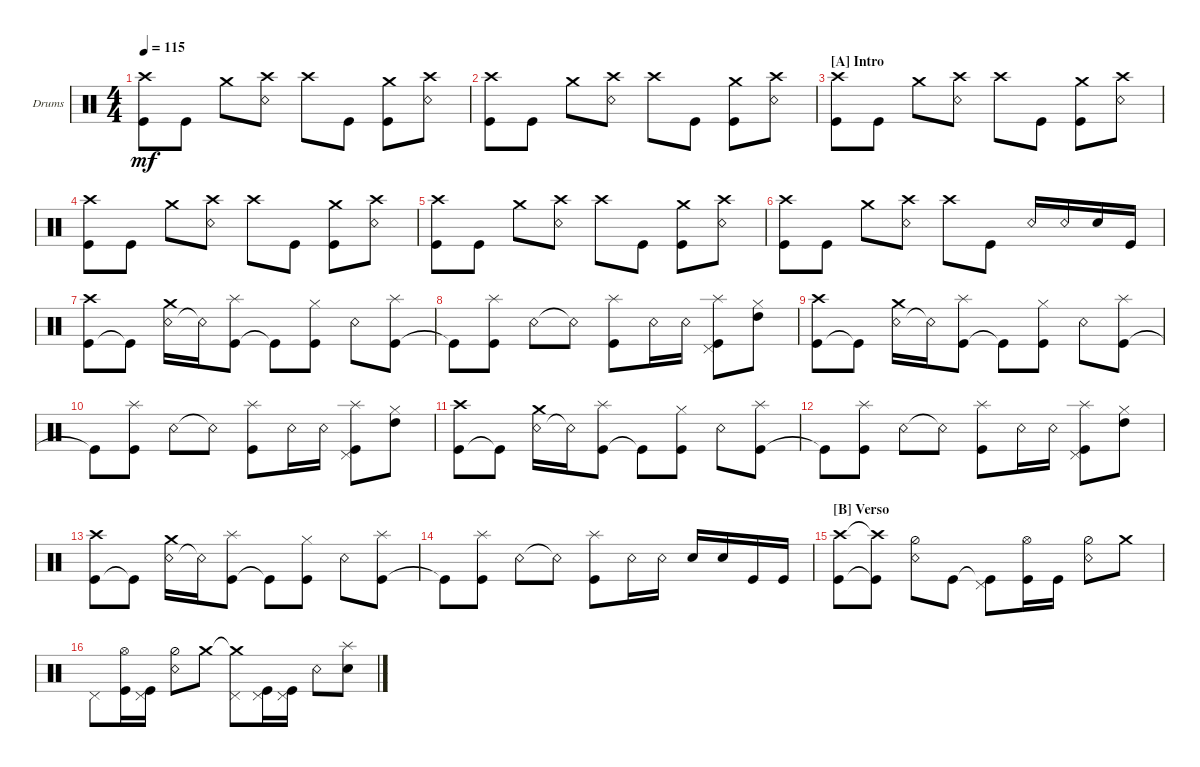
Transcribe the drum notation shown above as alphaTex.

\defaultSystemsLayout 4
\bracketExtendMode groupsimilarinstruments
\firstSystemTrackNameOrientation horizontal
\otherSystemsTrackNameOrientation horizontal
\track ("Drum" "Drums") {multiBarRest instrument percussion}
\staff {score}
\articulation defaults
\ts (4 4)
\tempo 115
\clef neutral
\ks c
("Kick (hit)" "Crash high (hit)").8{dy mf} "Kick (hit)".8 "Crash medium (hit)".8 ("Snare (rim shot)" "Crash high (hit)").8 "Crash high (hit)".8 "Kick (hit)".8 ("Crash medium (hit)" "Kick (hit)").8 ("Snare (rim shot)" "Crash high (hit)").8 |
("Kick (hit)" "Crash high (hit)").8 "Kick (hit)".8 "Crash medium (hit)".8 ("Snare (rim shot)" "Crash high (hit)").8 "Crash high (hit)".8 "Kick (hit)".8 ("Crash medium (hit)" "Kick (hit)").8 ("Snare (rim shot)" "Crash high (hit)").8 |
\section ("A" "Intro")
("Kick (hit)" "Crash high (hit)").8 "Kick (hit)".8 "Crash medium (hit)".8 ("Snare (rim shot)" "Crash high (hit)").8 "Crash high (hit)".8 "Kick (hit)".8 ("Crash medium (hit)" "Kick (hit)").8 ("Snare (rim shot)" "Crash high (hit)").8 |
("Kick (hit)" "Crash high (hit)").8 "Kick (hit)".8 "Crash medium (hit)".8 ("Snare (rim shot)" "Crash high (hit)").8 "Crash high (hit)".8 "Kick (hit)".8 ("Crash medium (hit)" "Kick (hit)").8 ("Snare (rim shot)" "Crash high (hit)").8 |
("Kick (hit)" "Crash high (hit)").8 "Kick (hit)".8 "Crash medium (hit)".8 ("Snare (rim shot)" "Crash high (hit)").8 "Crash high (hit)".8 "Kick (hit)".8 ("Crash medium (hit)" "Kick (hit)").8 ("Snare (rim shot)" "Crash high (hit)").8 |
("Kick (hit)" "Crash high (hit)").8 "Kick (hit)".8 "Crash medium (hit)".8 ("Snare (rim shot)" "Crash high (hit)").8 "Crash high (hit)".8 "Kick (hit)".8 "Snare (rim shot)".16 "Snare (rim shot)".16 "Snare (hit) 2".16 "Kick (hit)".16 |
("Kick (hit)" "Crash high (hit)").8 "Kick (hit)"{t}.8 ("Snare (rim shot)" "Crash medium (hit)").16 "Snare (rim shot)"{t}.16 ("Kick (hit)" "Splash (hit)").8 "Kick (hit)"{t}.8 ("Kick (hit)" "Hi-Hat (closed)").8 "Snare (rim shot)".8 ("Kick (hit)" "Splash (hit)").8 |
"Kick (hit)"{t}.8 ("Kick (hit)" "Splash (hit)").8 "Snare (rim shot)".8 "Snare (rim shot)"{t}.8 ("Kick (hit)" "Splash (hit)").8 "Snare (rim shot)".16 "Snare (rim shot)".16 ("Pedal Hi-Hat (hit)" "Kick (hit)" "Splash (hit)").8 ("High Tom (hit)" "Hi-Hat (closed)").8 |
("Kick (hit)" "Crash high (hit)").8 "Kick (hit)"{t}.8 ("Snare (rim shot)" "Crash medium (hit)").16 "Snare (rim shot)"{t}.16 ("Kick (hit)" "Splash (hit)").8 "Kick (hit)"{t}.8 ("Kick (hit)" "Hi-Hat (closed)").8 "Snare (rim shot)".8 ("Kick (hit)" "Splash (hit)").8 |
"Kick (hit)"{t}.8 ("Kick (hit)" "Splash (hit)").8 "Snare (rim shot)".8 "Snare (rim shot)"{t}.8 ("Kick (hit)" "Splash (hit)").8 "Snare (rim shot)".16 "Snare (rim shot)".16 ("Pedal Hi-Hat (hit)" "Kick (hit)" "Splash (hit)").8 ("High Tom (hit)" "Hi-Hat (closed)").8 |
("Kick (hit)" "Crash high (hit)").8 "Kick (hit)"{t}.8 ("Snare (rim shot)" "Crash medium (hit)").16 "Snare (rim shot)"{t}.16 ("Kick (hit)" "Splash (hit)").8 "Kick (hit)"{t}.8 ("Kick (hit)" "Hi-Hat (closed)").8 "Snare (rim shot)".8 ("Kick (hit)" "Splash (hit)").8 |
"Kick (hit)"{t}.8 ("Kick (hit)" "Splash (hit)").8 "Snare (rim shot)".8 "Snare (rim shot)"{t}.8 ("Kick (hit)" "Splash (hit)").8 "Snare (rim shot)".16 "Snare (rim shot)".16 ("Pedal Hi-Hat (hit)" "Kick (hit)" "Splash (hit)").8 ("High Tom (hit)" "Hi-Hat (closed)").8 |
("Kick (hit)" "Crash high (hit)").8 "Kick (hit)"{t}.8 ("Snare (rim shot)" "Crash medium (hit)").16 "Snare (rim shot)"{t}.16 ("Kick (hit)" "Splash (hit)").8 "Kick (hit)"{t}.8 ("Kick (hit)" "Hi-Hat (closed)").8 "Snare (rim shot)".8 ("Kick (hit)" "Splash (hit)").8 |
"Kick (hit)"{t}.8 ("Kick (hit)" "Splash (hit)").8 "Snare (rim shot)".8 "Snare (rim shot)"{t}.8 ("Kick (hit)" "Splash (hit)").8 "Snare (rim shot)".16 "Snare (rim shot)".16 "Snare (hit) 2".16 "Snare (hit) 2".16 "Kick (hit)".16 "Kick (hit)".16 |
\section ("B" "Verso")
("Kick (hit)" "Crash high (hit)").8 ("Kick (hit)"{t} "Crash high (hit)"{t}).8 ("Snare (rim shot)" "Hi-Hat (half)").8 "Kick (hit)".8 ("Kick (hit)"{t} "Pedal Hi-Hat (hit)").8 ("Kick (hit)" "Hi-Hat (open)").16 "Kick (hit)".16 ("Snare (rim shot)" "Hi-Hat (half)").8 "Crash medium (hit)".8 |
"Pedal Hi-Hat (hit)".8 ("Kick (hit)" "Hi-Hat (open)").16 ("Kick (hit)" "Pedal Hi-Hat (hit)").16 ("Snare (rim shot)" "Hi-Hat (half)").8 "Crash medium (hit)".8 ("Crash medium (hit)"{t} "Pedal Hi-Hat (hit)").8 ("Kick (hit)" "Pedal Hi-Hat (hit)").16 ("Kick (hit)" "Pedal Hi-Hat (hit)").16 "Snare (rim shot)".8 ("Snare (hit) 2" "Splash (hit)").8
